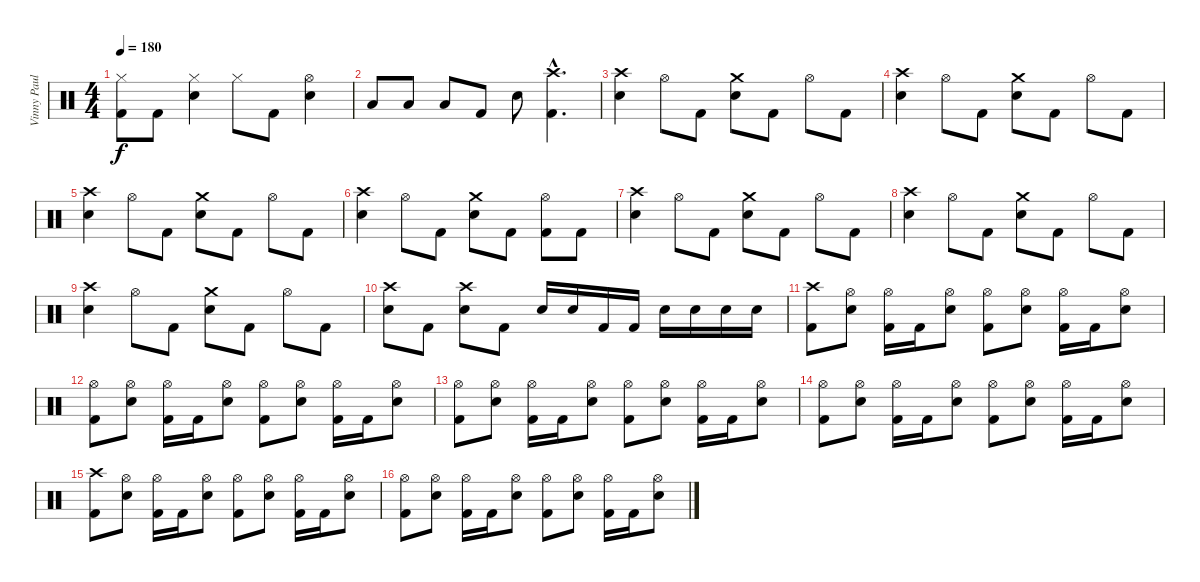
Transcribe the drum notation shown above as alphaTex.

\track ("Vinny Paul" "Vinny Paul") {instrument percussion}
\staff {score}
\articulation defaults
\ts (4 4)
\tempo 180
\clef neutral
\ks c
("Hi-Hat (closed)" "Kick (hit) 2").8{dy f} "Kick (hit) 2".8 ("Hi-Hat (closed)" "Electric Snare (hit)").4 "Hi-Hat (closed)".8 "Kick (hit) 2".8 ("Hi-Hat (open)" "Electric Snare (hit)").4 |
"Low Tom (hit)".8 "Low Tom (hit)".8 "Low Tom (hit)".8 "Kick (hit) 2".8 "Electric Snare (hit)".8 ("Crash high (hit)"{hac} "Kick (hit) 2"{hac}).4{d} |
("Crash high (hit)" "Electric Snare (hit)").4 "Hi-Hat (open)".8 "Kick (hit) 2".8 ("Crash medium (hit)" "Electric Snare (hit)").8 "Kick (hit) 2".8 "Hi-Hat (open)".8 "Kick (hit) 2".8 |
("Crash high (hit)" "Electric Snare (hit)").4 "Hi-Hat (open)".8 "Kick (hit) 2".8 ("Crash medium (hit)" "Electric Snare (hit)").8 "Kick (hit) 2".8 "Hi-Hat (open)".8 "Kick (hit) 2".8 |
("Crash high (hit)" "Electric Snare (hit)").4 "Hi-Hat (open)".8 "Kick (hit) 2".8 ("Crash medium (hit)" "Electric Snare (hit)").8 "Kick (hit) 2".8 "Hi-Hat (open)".8 "Kick (hit) 2".8 |
("Crash high (hit)" "Electric Snare (hit)").4 "Hi-Hat (open)".8 "Kick (hit) 2".8 ("Crash medium (hit)" "Electric Snare (hit)").8 "Kick (hit) 2".8 ("Hi-Hat (open)" "Kick (hit) 2").8 "Kick (hit) 2".8 |
("Crash high (hit)" "Electric Snare (hit)").4 "Hi-Hat (open)".8 "Kick (hit) 2".8 ("Crash medium (hit)" "Electric Snare (hit)").8 "Kick (hit) 2".8 "Hi-Hat (open)".8 "Kick (hit) 2".8 |
("Crash high (hit)" "Electric Snare (hit)").4 "Hi-Hat (open)".8 "Kick (hit) 2".8 ("Crash medium (hit)" "Electric Snare (hit)").8 "Kick (hit) 2".8 "Hi-Hat (open)".8 "Kick (hit) 2".8 |
("Crash high (hit)" "Electric Snare (hit)").4 "Hi-Hat (open)".8 "Kick (hit) 2".8 ("Crash medium (hit)" "Electric Snare (hit)").8 "Kick (hit) 2".8 "Hi-Hat (open)".8 "Kick (hit) 2".8 |
("Crash high (hit)" "Electric Snare (hit)").8 "Kick (hit) 2".8 ("Crash high (hit)" "Electric Snare (hit)").8 "Kick (hit) 2".8 "Electric Snare (hit)".16 "Electric Snare (hit)".16 "Kick (hit) 2".16 "Kick (hit) 2".16 "Electric Snare (hit)".16 "Electric Snare (hit)".16 "Electric Snare (hit)".16 "Electric Snare (hit)".16 |
("Crash high (hit)" "Kick (hit) 2").8 ("Hi-Hat (open)" "Electric Snare (hit)").8 ("Hi-Hat (open)" "Kick (hit) 2").16 "Kick (hit) 2".16 ("Hi-Hat (open)" "Electric Snare (hit)").8 ("Hi-Hat (open)" "Kick (hit) 2").8 ("Hi-Hat (open)" "Electric Snare (hit)").8 ("Hi-Hat (open)" "Kick (hit) 2").16 "Kick (hit) 2".16 ("Hi-Hat (open)" "Electric Snare (hit)").8 |
("Hi-Hat (open)" "Kick (hit) 2").8 ("Hi-Hat (open)" "Electric Snare (hit)").8 ("Hi-Hat (open)" "Kick (hit) 2").16 "Kick (hit) 2".16 ("Hi-Hat (open)" "Electric Snare (hit)").8 ("Hi-Hat (open)" "Kick (hit) 2").8 ("Hi-Hat (open)" "Electric Snare (hit)").8 ("Hi-Hat (open)" "Kick (hit) 2").16 "Kick (hit) 2".16 ("Hi-Hat (open)" "Electric Snare (hit)").8 |
("Hi-Hat (open)" "Kick (hit) 2").8 ("Hi-Hat (open)" "Electric Snare (hit)").8 ("Hi-Hat (open)" "Kick (hit) 2").16 "Kick (hit) 2".16 ("Hi-Hat (open)" "Electric Snare (hit)").8 ("Hi-Hat (open)" "Kick (hit) 2").8 ("Hi-Hat (open)" "Electric Snare (hit)").8 ("Hi-Hat (open)" "Kick (hit) 2").16 "Kick (hit) 2".16 ("Hi-Hat (open)" "Electric Snare (hit)").8 |
("Hi-Hat (open)" "Kick (hit) 2").8 ("Hi-Hat (open)" "Electric Snare (hit)").8 ("Hi-Hat (open)" "Kick (hit) 2").16 "Kick (hit) 2".16 ("Hi-Hat (open)" "Electric Snare (hit)").8 ("Hi-Hat (open)" "Kick (hit) 2").8 ("Hi-Hat (open)" "Electric Snare (hit)").8 ("Hi-Hat (open)" "Kick (hit) 2").16 "Kick (hit) 2".16 ("Hi-Hat (open)" "Electric Snare (hit)").8 |
("Crash high (hit)" "Kick (hit) 2").8 ("Hi-Hat (open)" "Electric Snare (hit)").8 ("Hi-Hat (open)" "Kick (hit) 2").16 "Kick (hit) 2".16 ("Hi-Hat (open)" "Electric Snare (hit)").8 ("Hi-Hat (open)" "Kick (hit) 2").8 ("Hi-Hat (open)" "Electric Snare (hit)").8 ("Hi-Hat (open)" "Kick (hit) 2").16 "Kick (hit) 2".16 ("Hi-Hat (open)" "Electric Snare (hit)").8 |
("Hi-Hat (open)" "Kick (hit) 2").8 ("Hi-Hat (open)" "Electric Snare (hit)").8 ("Hi-Hat (open)" "Kick (hit) 2").16 "Kick (hit) 2".16 ("Hi-Hat (open)" "Electric Snare (hit)").8 ("Hi-Hat (open)" "Kick (hit) 2").8 ("Hi-Hat (open)" "Electric Snare (hit)").8 ("Hi-Hat (open)" "Kick (hit) 2").16 "Kick (hit) 2".16 ("Hi-Hat (open)" "Electric Snare (hit)").8
